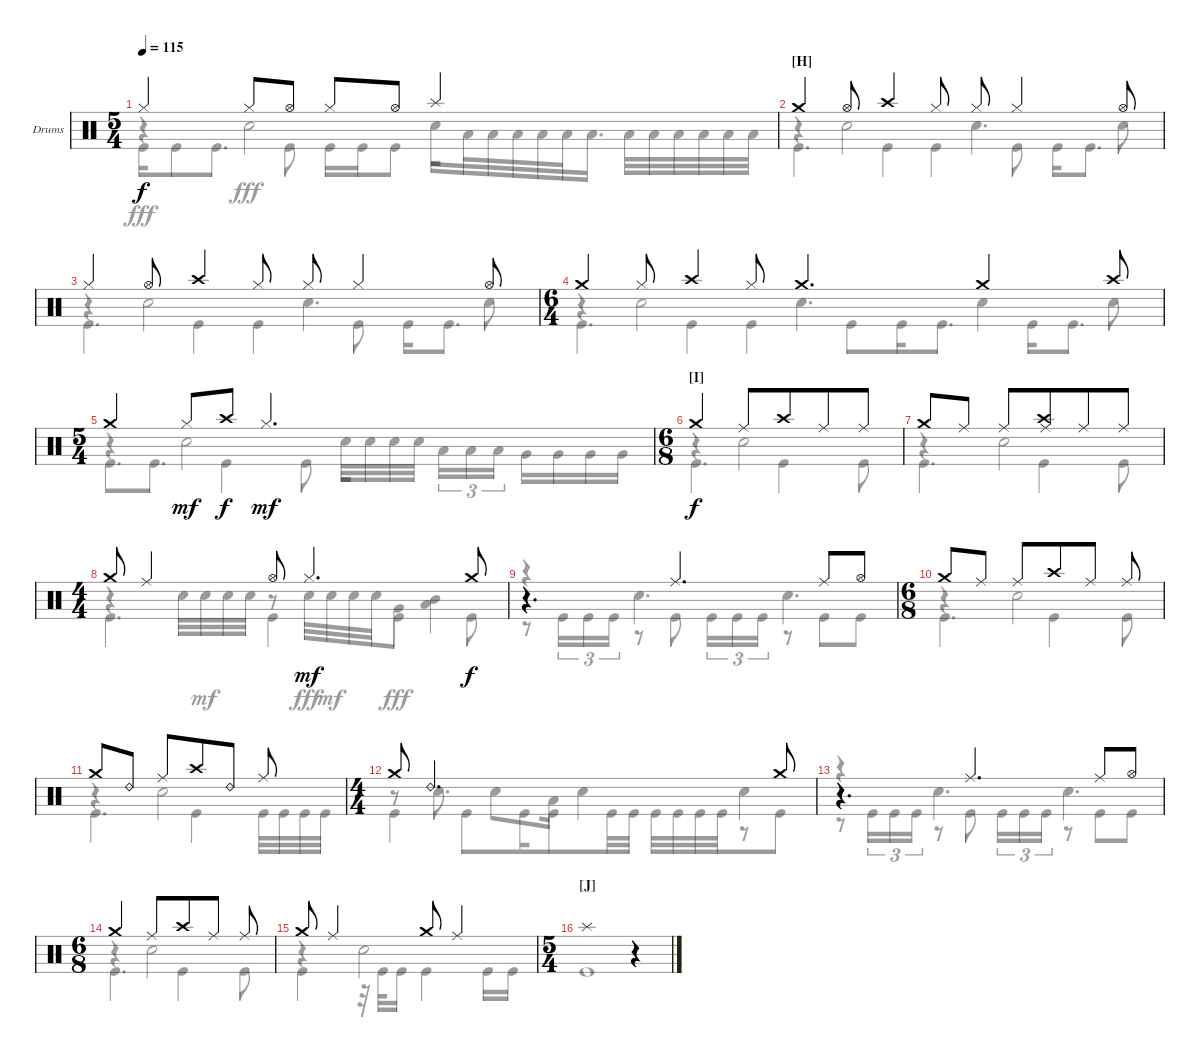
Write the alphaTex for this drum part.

\defaultSystemsLayout 4
\bracketExtendMode groupsimilarinstruments
\firstSystemTrackNameOrientation horizontal
\otherSystemsTrackNameOrientation horizontal
\track ("Drumkit" "Drums") {instrument percussion}
\staff {score}
\articulation defaults
\voice
\ts (5 4)
\tempo 115
\clef neutral
\ks c "Hi-Hat (closed)".4{dy f} "Hi-Hat (closed)".8 "Hi-Hat (open)".8 "Hi-Hat (closed)".8 "Hi-Hat (open)".8 "Splash (hit)".2
|
\section ("H" "")
"Crash medium (hit)".4 "Hi-Hat (open)".8 "Crash high (hit)".4 "Hi-Hat (closed)".8 "Hi-Hat (closed)".8 "Hi-Hat (closed)".4 "Hi-Hat (open)".8 |
"Hi-Hat (closed)".4 "Hi-Hat (open)".8 "Crash high (hit)".4 "Hi-Hat (closed)".8 "Hi-Hat (closed)".8 "Hi-Hat (closed)".4 "Hi-Hat (open)".8 |
\ts (6 4)
\beaming (8 2 4 3 2 1)
"Crash medium (hit)".4 "Hi-Hat (closed)".8 "Crash high (hit)".4 "Hi-Hat (closed)".8 "Crash medium (hit)".4{d} "Crash medium (hit)".4 "Crash high (hit)".8 |
\ts (5 4)
\beaming (8 2 4 2 2)
"Crash medium (hit)".4 "Hi-Hat (closed)".8{dy mf} "Crash high (hit)".8{dy f} "Hi-Hat (closed)".2{d dy mf} |
\ts (6 8)
\section ("I" "")
"Crash medium (hit)".4{dy f} "Ride (middle)".8 "Crash high (hit)".8 "Ride (middle)".8 "Ride (middle)".8 |
"Crash medium (hit)".8 "Ride (middle)".8 "Ride (middle)".8 ("Crash high (hit)" "Ride (middle)").8 "Ride (middle)".8 "Ride (middle)".8 |
\ts (4 4)
\beaming (8 2 2 3 1)
"Crash medium (hit)".8 "Ride (middle)".4 "Hi-Hat (open)".8 "Hi-Hat (closed)".4{d dy mf} "Crash medium (hit)".8{dy f} |
\beaming (8 2 3 3)
r.4{d} "Ride (middle)".4{d} "Ride (middle)".8 "Hi-Hat (open)".8 |
\ts (6 8)
"Crash medium (hit)".8 "Ride (middle)".8 "Ride (middle)".8 "Crash high (hit)".8 "Ride (middle)".8 "Ride (middle)".8 |
"Crash medium (hit)".8 "Ride (bell) 2".8 "Ride (middle)".8 "Crash high (hit)".8 "Ride (bell) 2".8 "Ride (middle)".8 |
\ts (4 4)
"Crash medium (hit)".8 "Ride (bell) 2".2{d} "Crash medium (hit)".8 |
r.4{d} "Ride (middle)".4{d} "Ride (middle)".8 "Hi-Hat (open)".8 |
\ts (6 8)
"Crash medium (hit)".4 "Ride (middle)".8 "Crash high (hit)".8 "Ride (middle)".8 "Ride (middle)".8 |
"Crash medium (hit)".8 "Ride (middle)".4 "Crash medium (hit)".8 "Ride (middle)".4 |
\ts (5 4)
\beaming (8 2 4 3 1)
\section ("J" "")
"Splash (hit)".1 r.4
\voice
\clef neutral
\ottava regular
\simile none
\ks c
r.4{dy fff} "Snare (hit) 2".2 "Snare (hit) 2".16 "Low Tom (hit)".32 "Low Tom (hit)".32 "Low Tom (hit)".32 "Low Tom (hit)".32 "Low Tom (hit)".32 "Low Tom (hit)".16{d} "Low Tom (hit)".32 "Low Tom (hit)".32 "Low Tom (hit)".32 "Low Tom (hit)".32 "Low Tom (hit)".32 "Low Tom (hit)".32 |
r.4 "Snare (hit) 2".2 "Snare (hit) 2".4{d} "Snare (hit) 2".8 |
r.4 "Snare (hit) 2".2 "Snare (hit) 2".4{d} "Snare (hit) 2".8 |
r.4 "Snare (hit) 2".2 "Snare (hit) 2".4{d} "Snare (hit) 2".4 "Snare (hit) 2".8 |
r.4 "Snare (hit) 2".2 "Snare (hit) 2".32 "Snare (hit) 2".32 "Snare (hit) 2".32 "Snare (hit) 2".32 "Low Tom (hit)".16{tu (3 2)} "Low Tom (hit)".16{tu (3 2)} "Low Tom (hit)".16{tu (3 2)} "Very Low Tom (hit)".16 "Very Low Tom (hit)".16 "Very Low Tom (hit)".16 "Very Low Tom (hit)".16 |
r.4 "Snare (hit) 2".2 |
r.4 "Snare (hit) 2".2 |
r.4 "Snare (hit) 2".32 "Snare (hit) 2".32{dy mf} "Snare (hit) 2".32 "Snare (hit) 2".32 r.8 "Snare (hit) 2".32{dy fff} "Snare (hit) 2".32{dy mf} "Snare (hit) 2".32 "Snare (hit) 2".32 "Very Low Tom (hit)".8{dy fff} ("Low Tom (hit)" "Mid Tom (hit)").4 |
r.4 "Snare (hit) 2".4{d} "Snare (hit) 2".4{d} |
r.4 "Snare (hit) 2".2 |
r.4 "Snare (hit) 2".2 |
r.8 "Snare (hit) 2".8{d} "Snare (hit) 2".8 "Low Tom (hit)".16 "Snare (hit) 2".4 "Snare (hit) 2".4 |
r.4 "Snare (hit) 2".4{d} "Snare (hit) 2".4{d} |
r.4 "Snare (hit) 2".2 |
r.4 "Snare (hit) 2".2 |
\voice
\clef neutral
\ottava regular
\simile none
\ks c "Kick (hit)".16{dy fff} "Kick (hit)".8 "Kick (hit)".8{d} "Kick (hit)".8 "Kick (hit)".16 "Kick (hit)".16 "Kick (hit)".8
r.2 |
"Kick (hit)".4{d} "Kick (hit)".4 "Kick (hit)".4 "Kick (hit)".8 "Kick (hit)".16 "Kick (hit)".8{d} |
"Kick (hit)".4{d} "Kick (hit)".4 "Kick (hit)".4 "Kick (hit)".8 "Kick (hit)".16 "Kick (hit)".8{d} |
"Kick (hit)".4{d} "Kick (hit)".4 "Kick (hit)".4 "Kick (hit)".8 "Kick (hit)".16 "Kick (hit)".8{d} "Kick (hit)".16 "Kick (hit)".8{d} |
"Kick (hit)".8{d} "Kick (hit)".8{d} "Kick (hit)".4 "Kick (hit)".8 r.2 |
"Kick (hit)".4{d} "Kick (hit)".4 "Kick (hit)".8 |
"Kick (hit)".4{d} "Kick (hit)".4 "Kick (hit)".8 |
"Kick (hit)".4{d} "Kick (hit)".4 "Kick (hit)".4 "Kick (hit)".8 |
r.8 "Kick (hit)".16{tu (3 2)} "Kick (hit)".16{tu (3 2)} "Kick (hit)".16{tu (3 2)} r.8 "Kick (hit)".8 "Kick (hit)".16{tu (3 2)} "Kick (hit)".16{tu (3 2)} "Kick (hit)".16{tu (3 2)} r.8 "Kick (hit)".8 "Kick (hit)".8 |
"Kick (hit)".4{d} "Kick (hit)".4 "Kick (hit)".8 |
"Kick (hit)".4{d} "Kick (hit)".4 "Kick (hit)".32 "Kick (hit)".32 "Kick (hit)".32 "Kick (hit)".32 |
"Kick (hit)".4 "Kick (hit)".8 "Kick (hit)".16 "Kick (hit)".8 "Kick (hit)".32 "Kick (hit)".32 "Kick (hit)".32 "Kick (hit)".32 "Kick (hit)".32 "Kick (hit)".32 r.8 "Kick (hit)".8 |
r.8 "Kick (hit)".16{tu (3 2)} "Kick (hit)".16{tu (3 2)} "Kick (hit)".16{tu (3 2)} r.8 "Kick (hit)".8 "Kick (hit)".16{tu (3 2)} "Kick (hit)".16{tu (3 2)} "Kick (hit)".16{tu (3 2)} r.8 "Kick (hit)".8 "Kick (hit)".8 |
"Kick (hit)".4{d} "Kick (hit)".4 "Kick (hit)".8 |
"Kick (hit)".4 r.32 "Kick (hit)".32 "Kick (hit)".16 "Kick (hit)".4 "Kick (hit)".16 "Kick (hit)".16 |
"Kick (hit)".1 r.4
